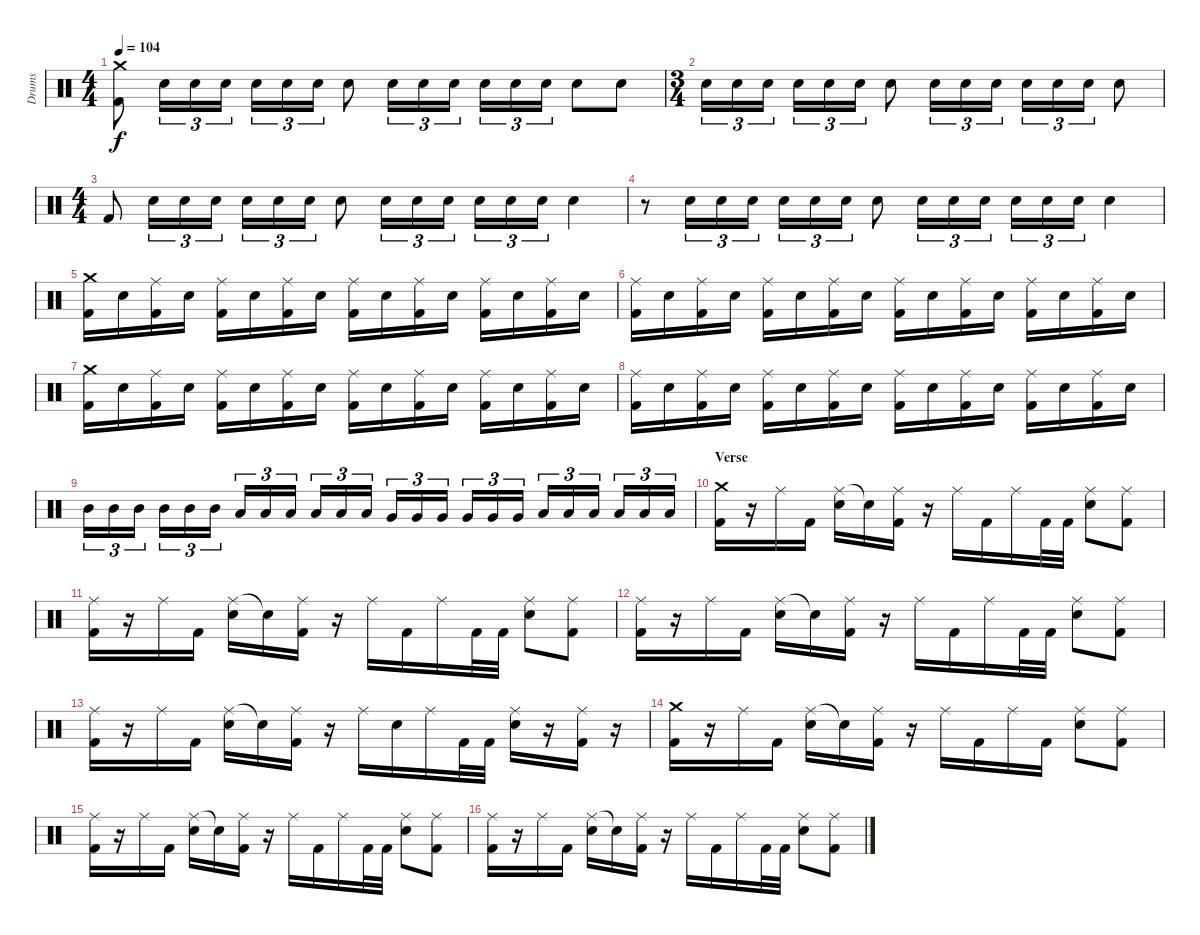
\track ("Drums" "Drums") {instrument percussion}
\staff {score}
\articulation defaults
\ts (4 4)
\tempo 104
\clef neutral
\ks c
("Crash medium (hit)" "Kick (hit) 2").8{dy f} "Electric Snare (hit)".16{tu (3 2)} "Electric Snare (hit)".16{tu (3 2)} "Electric Snare (hit)".16{tu (3 2)} "Electric Snare (hit)".16{tu (3 2)} "Electric Snare (hit)".16{tu (3 2)} "Electric Snare (hit)".16{tu (3 2)} "Electric Snare (hit)".8 "Electric Snare (hit)".16{tu (3 2)} "Electric Snare (hit)".16{tu (3 2)} "Electric Snare (hit)".16{tu (3 2)} "Electric Snare (hit)".16{tu (3 2)} "Electric Snare (hit)".16{tu (3 2)} "Electric Snare (hit)".16{tu (3 2)} "Electric Snare (hit)".8 "Electric Snare (hit)".8 |
\ts (3 4)
"Electric Snare (hit)".16{tu (3 2)} "Electric Snare (hit)".16{tu (3 2)} "Electric Snare (hit)".16{tu (3 2)} "Electric Snare (hit)".16{tu (3 2)} "Electric Snare (hit)".16{tu (3 2)} "Electric Snare (hit)".16{tu (3 2)} "Electric Snare (hit)".8 "Electric Snare (hit)".16{tu (3 2)} "Electric Snare (hit)".16{tu (3 2)} "Electric Snare (hit)".16{tu (3 2)} "Electric Snare (hit)".16{tu (3 2)} "Electric Snare (hit)".16{tu (3 2)} "Electric Snare (hit)".16{tu (3 2)} "Electric Snare (hit)".8 |
\ts (4 4)
"Kick (hit) 2".8 "Electric Snare (hit)".16{tu (3 2)} "Electric Snare (hit)".16{tu (3 2)} "Electric Snare (hit)".16{tu (3 2)} "Electric Snare (hit)".16{tu (3 2)} "Electric Snare (hit)".16{tu (3 2)} "Electric Snare (hit)".16{tu (3 2)} "Electric Snare (hit)".8 "Electric Snare (hit)".16{tu (3 2)} "Electric Snare (hit)".16{tu (3 2)} "Electric Snare (hit)".16{tu (3 2)} "Electric Snare (hit)".16{tu (3 2)} "Electric Snare (hit)".16{tu (3 2)} "Electric Snare (hit)".16{tu (3 2)} "Electric Snare (hit)".4 |
r.8 "Electric Snare (hit)".16{tu (3 2)} "Electric Snare (hit)".16{tu (3 2)} "Electric Snare (hit)".16{tu (3 2)} "Electric Snare (hit)".16{tu (3 2)} "Electric Snare (hit)".16{tu (3 2)} "Electric Snare (hit)".16{tu (3 2)} "Electric Snare (hit)".8 "Electric Snare (hit)".16{tu (3 2)} "Electric Snare (hit)".16{tu (3 2)} "Electric Snare (hit)".16{tu (3 2)} "Electric Snare (hit)".16{tu (3 2)} "Electric Snare (hit)".16{tu (3 2)} "Electric Snare (hit)".16{tu (3 2)} "Electric Snare (hit)".4 |
\section ("" "")
("Crash medium (hit)" "Kick (hit) 2").16 "Electric Snare (hit)".16 ("Ride (middle)" "Kick (hit) 2").16 "Electric Snare (hit)".16 ("Ride (middle)" "Kick (hit) 2").16 "Electric Snare (hit)".16 ("Ride (middle)" "Kick (hit) 2").16 "Electric Snare (hit)".16 ("Ride (middle)" "Kick (hit) 2").16 "Electric Snare (hit)".16 ("Ride (middle)" "Kick (hit) 2").16 "Electric Snare (hit)".16 ("Ride (middle)" "Kick (hit) 2").16 "Electric Snare (hit)".16 ("Ride (middle)" "Kick (hit) 2").16 "Electric Snare (hit)".16 |
("Ride (middle)" "Kick (hit) 2").16 "Electric Snare (hit)".16 ("Ride (middle)" "Kick (hit) 2").16 "Electric Snare (hit)".16 ("Ride (middle)" "Kick (hit) 2").16 "Electric Snare (hit)".16 ("Ride (middle)" "Kick (hit) 2").16 "Electric Snare (hit)".16 ("Ride (middle)" "Kick (hit) 2").16 "Electric Snare (hit)".16 ("Ride (middle)" "Kick (hit) 2").16 "Electric Snare (hit)".16 ("Ride (middle)" "Kick (hit) 2").16 "Electric Snare (hit)".16 ("Ride (middle)" "Kick (hit) 2").16 "Electric Snare (hit)".16 |
("Crash medium (hit)" "Kick (hit) 2").16 "Electric Snare (hit)".16 ("Ride (middle)" "Kick (hit) 2").16 "Electric Snare (hit)".16 ("Ride (middle)" "Kick (hit) 2").16 "Electric Snare (hit)".16 ("Ride (middle)" "Kick (hit) 2").16 "Electric Snare (hit)".16 ("Ride (middle)" "Kick (hit) 2").16 "Electric Snare (hit)".16 ("Ride (middle)" "Kick (hit) 2").16 "Electric Snare (hit)".16 ("Ride (middle)" "Kick (hit) 2").16 "Electric Snare (hit)".16 ("Ride (middle)" "Kick (hit) 2").16 "Electric Snare (hit)".16 |
("Ride (middle)" "Kick (hit) 2").16 "Electric Snare (hit)".16 ("Ride (middle)" "Kick (hit) 2").16 "Electric Snare (hit)".16 ("Ride (middle)" "Kick (hit) 2").16 "Electric Snare (hit)".16 ("Ride (middle)" "Kick (hit) 2").16 "Electric Snare (hit)".16 ("Ride (middle)" "Kick (hit) 2").16 "Electric Snare (hit)".16 ("Ride (middle)" "Kick (hit) 2").16 "Electric Snare (hit)".16 ("Ride (middle)" "Kick (hit) 2").16 "Electric Snare (hit)".16 ("Ride (middle)" "Kick (hit) 2").16 "Electric Snare (hit)".16 |
"Mid Tom (hit)".16{tu (3 2)} "Mid Tom (hit)".16{tu (3 2)} "Mid Tom (hit)".16{tu (3 2)} "Mid Tom (hit)".16{tu (3 2)} "Mid Tom (hit)".16{tu (3 2)} "Mid Tom (hit)".16{tu (3 2)} "Low Tom (hit)".16{tu (3 2)} "Low Tom (hit)".16{tu (3 2)} "Low Tom (hit)".16{tu (3 2)} "Low Tom (hit)".16{tu (3 2)} "Low Tom (hit)".16{tu (3 2)} "Low Tom (hit)".16{tu (3 2)} "Very Low Tom (hit)".16{tu (3 2)} "Very Low Tom (hit)".16{tu (3 2)} "Very Low Tom (hit)".16{tu (3 2)} "Very Low Tom (hit)".16{tu (3 2)} "Very Low Tom (hit)".16{tu (3 2)} "Very Low Tom (hit)".16{tu (3 2)} "Low Floor Tom (hit)".16{tu (3 2)} "Low Floor Tom (hit)".16{tu (3 2)} "Low Floor Tom (hit)".16{tu (3 2)} "Low Floor Tom (hit)".16{tu (3 2)} "Low Floor Tom (hit)".16{tu (3 2)} "Low Floor Tom (hit)".16{tu (3 2)} |
\section ("" "Verse")
("Crash medium (hit)" "Kick (hit) 2").16 r.16 "Ride (middle)".16 "Kick (hit) 2".16 ("Ride (middle)" "Electric Snare (hit)").16 "Snare (hit)"{t}.16 ("Ride (middle)" "Kick (hit) 2").16 r.16 "Ride (middle)".16 "Kick (hit) 2".16 "Ride (middle)".16 "Kick (hit) 2".32 "Kick (hit) 2".32 ("Ride (middle)" "Electric Snare (hit)").8 ("Ride (middle)" "Kick (hit) 2").8 |
("Ride (middle)" "Kick (hit) 2").16 r.16 "Ride (middle)".16 "Kick (hit) 2".16 ("Ride (middle)" "Electric Snare (hit)").16 "Snare (hit)"{t}.16 ("Ride (middle)" "Kick (hit) 2").16 r.16 "Ride (middle)".16 "Kick (hit) 2".16 "Ride (middle)".16 "Kick (hit) 2".32 "Kick (hit) 2".32 ("Ride (middle)" "Electric Snare (hit)").8 ("Ride (middle)" "Kick (hit) 2").8 |
("Ride (middle)" "Kick (hit) 2").16 r.16 "Ride (middle)".16 "Kick (hit) 2".16 ("Ride (middle)" "Electric Snare (hit)").16 "Snare (hit)"{t}.16 ("Ride (middle)" "Kick (hit) 2").16 r.16 "Ride (middle)".16 "Kick (hit) 2".16 "Ride (middle)".16 "Kick (hit) 2".32 "Kick (hit) 2".32 ("Ride (middle)" "Electric Snare (hit)").8 ("Ride (middle)" "Kick (hit) 2").8 |
("Ride (middle)" "Kick (hit) 2").16 r.16 "Ride (middle)".16 "Kick (hit) 2".16 ("Ride (middle)" "Electric Snare (hit)").16 "Snare (hit)"{t}.16 ("Ride (middle)" "Kick (hit) 2").16 r.16 "Ride (middle)".16 "Electric Snare (hit)".16 "Ride (middle)".16 "Kick (hit) 2".32 "Kick (hit) 2".32 ("Ride (middle)" "Electric Snare (hit)").16 r.16 ("Ride (middle)" "Kick (hit) 2").16 r.16 |
("Crash medium (hit)" "Kick (hit) 2").16 r.16 "Ride (middle)".16 "Kick (hit) 2".16 ("Ride (middle)" "Electric Snare (hit)").16 "Snare (hit)"{t}.16 ("Ride (middle)" "Kick (hit) 2").16 r.16 "Ride (middle)".16 "Kick (hit) 2".16 "Ride (middle)".16 "Kick (hit) 2".16 ("Ride (middle)" "Electric Snare (hit)").8 ("Ride (middle)" "Kick (hit) 2").8 |
("Ride (middle)" "Kick (hit) 2").16 r.16 "Ride (middle)".16 "Kick (hit) 2".16 ("Ride (middle)" "Electric Snare (hit)").16 "Snare (hit)"{t}.16 ("Ride (middle)" "Kick (hit) 2").16 r.16 "Ride (middle)".16 "Kick (hit) 2".16 "Ride (middle)".16 "Kick (hit) 2".32 "Kick (hit) 2".32 ("Ride (middle)" "Electric Snare (hit)").8 ("Ride (middle)" "Kick (hit) 2").8 |
("Ride (middle)" "Kick (hit) 2").16 r.16 "Ride (middle)".16 "Kick (hit) 2".16 ("Ride (middle)" "Electric Snare (hit)").16 "Snare (hit)"{t}.16 ("Ride (middle)" "Kick (hit) 2").16 r.16 "Ride (middle)".16 "Kick (hit) 2".16 "Ride (middle)".16 "Kick (hit) 2".32 "Kick (hit) 2".32 ("Ride (middle)" "Electric Snare (hit)").8 ("Ride (middle)" "Kick (hit) 2").8
